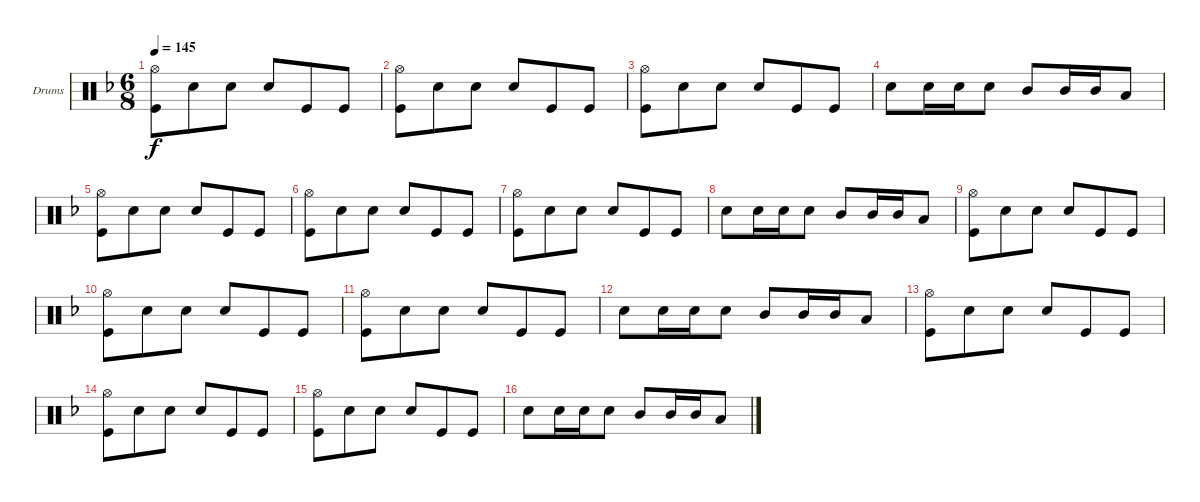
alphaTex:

\bracketExtendMode groupsimilarinstruments
\firstSystemTrackNameOrientation horizontal
\otherSystemsTrackNameOrientation horizontal
\track ("Drumkit" "Drums") {instrument percussion}
\staff {score}
\articulation defaults
\ts (6 8)
\tempo 145
\clef neutral
\ks f
("Hi-Hat (open)" "Kick (hit)").8{dy f} "Snare (hit) 2".8 "Snare (hit) 2".8 "Snare (hit) 2".8 "Kick (hit)".8 "Kick (hit)".8 |
("Hi-Hat (open)" "Kick (hit)").8 "Snare (hit) 2".8 "Snare (hit) 2".8 "Snare (hit) 2".8 "Kick (hit)".8 "Kick (hit)".8 |
("Hi-Hat (open)" "Kick (hit)").8 "Snare (hit) 2".8 "Snare (hit) 2".8 "Snare (hit) 2".8 "Kick (hit)".8 "Kick (hit)".8 |
"Snare (hit) 2".8 "Snare (hit) 2".16 "Snare (hit) 2".16 "Snare (hit) 2".8 "Mid Tom (hit)".8 "Mid Tom (hit)".16 "Mid Tom (hit)".16 "Low Tom (hit)".8 |
("Hi-Hat (open)" "Kick (hit)").8 "Snare (hit) 2".8 "Snare (hit) 2".8 "Snare (hit) 2".8 "Kick (hit)".8 "Kick (hit)".8 |
("Hi-Hat (open)" "Kick (hit)").8 "Snare (hit) 2".8 "Snare (hit) 2".8 "Snare (hit) 2".8 "Kick (hit)".8 "Kick (hit)".8 |
("Hi-Hat (open)" "Kick (hit)").8 "Snare (hit) 2".8 "Snare (hit) 2".8 "Snare (hit) 2".8 "Kick (hit)".8 "Kick (hit)".8 |
"Snare (hit) 2".8 "Snare (hit) 2".16 "Snare (hit) 2".16 "Snare (hit) 2".8 "Mid Tom (hit)".8 "Mid Tom (hit)".16 "Mid Tom (hit)".16 "Low Tom (hit)".8 |
("Hi-Hat (open)" "Kick (hit)").8 "Snare (hit) 2".8 "Snare (hit) 2".8 "Snare (hit) 2".8 "Kick (hit)".8 "Kick (hit)".8 |
("Hi-Hat (open)" "Kick (hit)").8 "Snare (hit) 2".8 "Snare (hit) 2".8 "Snare (hit) 2".8 "Kick (hit)".8 "Kick (hit)".8 |
("Hi-Hat (open)" "Kick (hit)").8 "Snare (hit) 2".8 "Snare (hit) 2".8 "Snare (hit) 2".8 "Kick (hit)".8 "Kick (hit)".8 |
"Snare (hit) 2".8 "Snare (hit) 2".16 "Snare (hit) 2".16 "Snare (hit) 2".8 "Mid Tom (hit)".8 "Mid Tom (hit)".16 "Mid Tom (hit)".16 "Low Tom (hit)".8 |
("Hi-Hat (open)" "Kick (hit)").8 "Snare (hit) 2".8 "Snare (hit) 2".8 "Snare (hit) 2".8 "Kick (hit)".8 "Kick (hit)".8 |
("Hi-Hat (open)" "Kick (hit)").8 "Snare (hit) 2".8 "Snare (hit) 2".8 "Snare (hit) 2".8 "Kick (hit)".8 "Kick (hit)".8 |
("Hi-Hat (open)" "Kick (hit)").8 "Snare (hit) 2".8 "Snare (hit) 2".8 "Snare (hit) 2".8 "Kick (hit)".8 "Kick (hit)".8 |
"Snare (hit) 2".8 "Snare (hit) 2".16 "Snare (hit) 2".16 "Snare (hit) 2".8 "Mid Tom (hit)".8 "Mid Tom (hit)".16 "Mid Tom (hit)".16 "Low Tom (hit)".8
